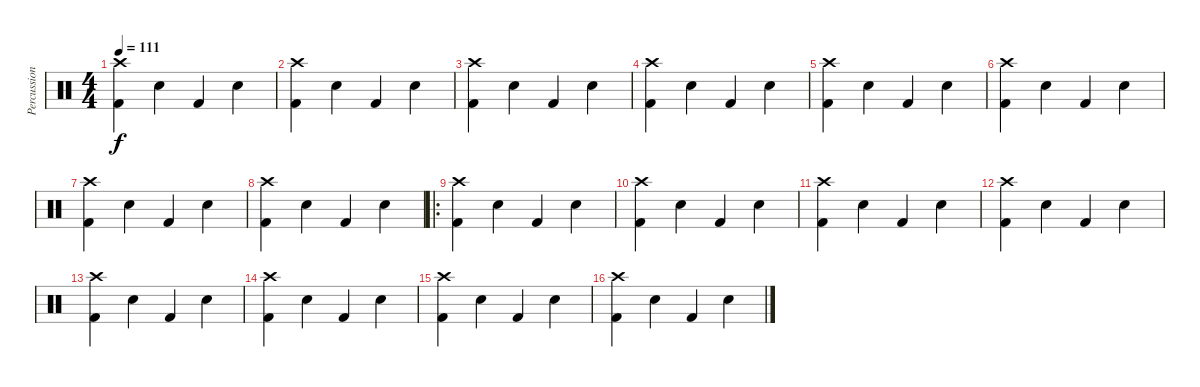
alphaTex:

\track ("Percussion" "Percussion") {instrument percussion}
\staff {score}
\articulation defaults
\ts (4 4)
\tempo 111
\clef neutral
\ks c
("Crash high (hit)" "Kick (hit) 2").4{dy f} "Snare (hit) 2".4 "Kick (hit) 2".4 "Snare (hit) 2".4 |
("Crash high (hit)" "Kick (hit) 2").4 "Snare (hit) 2".4 "Kick (hit) 2".4 "Snare (hit) 2".4 |
("Crash high (hit)" "Kick (hit) 2").4 "Snare (hit) 2".4 "Kick (hit) 2".4 "Snare (hit) 2".4 |
("Crash high (hit)" "Kick (hit) 2").4 "Snare (hit) 2".4 "Kick (hit) 2".4 "Snare (hit) 2".4 |
("Crash high (hit)" "Kick (hit) 2").4 "Snare (hit) 2".4 "Kick (hit) 2".4 "Snare (hit) 2".4 |
("Crash high (hit)" "Kick (hit) 2").4 "Snare (hit) 2".4 "Kick (hit) 2".4 "Snare (hit) 2".4 |
("Crash high (hit)" "Kick (hit) 2").4 "Snare (hit) 2".4 "Kick (hit) 2".4 "Snare (hit) 2".4 |
("Crash high (hit)" "Kick (hit) 2").4 "Snare (hit) 2".4 "Kick (hit) 2".4 "Snare (hit) 2".4 |
\ro
("Crash high (hit)" "Kick (hit) 2").4 "Snare (hit) 2".4 "Kick (hit) 2".4 "Snare (hit) 2".4 |
("Crash high (hit)" "Kick (hit) 2").4 "Snare (hit) 2".4 "Kick (hit) 2".4 "Snare (hit) 2".4 |
("Crash high (hit)" "Kick (hit) 2").4 "Snare (hit) 2".4 "Kick (hit) 2".4 "Snare (hit) 2".4 |
("Crash high (hit)" "Kick (hit) 2").4 "Snare (hit) 2".4 "Kick (hit) 2".4 "Snare (hit) 2".4 |
("Crash high (hit)" "Kick (hit) 2").4 "Snare (hit) 2".4 "Kick (hit) 2".4 "Snare (hit) 2".4 |
("Crash high (hit)" "Kick (hit) 2").4 "Snare (hit) 2".4 "Kick (hit) 2".4 "Snare (hit) 2".4 |
("Crash high (hit)" "Kick (hit) 2").4 "Snare (hit) 2".4 "Kick (hit) 2".4 "Snare (hit) 2".4 |
("Crash high (hit)" "Kick (hit) 2").4 "Snare (hit) 2".4 "Kick (hit) 2".4 "Snare (hit) 2".4
